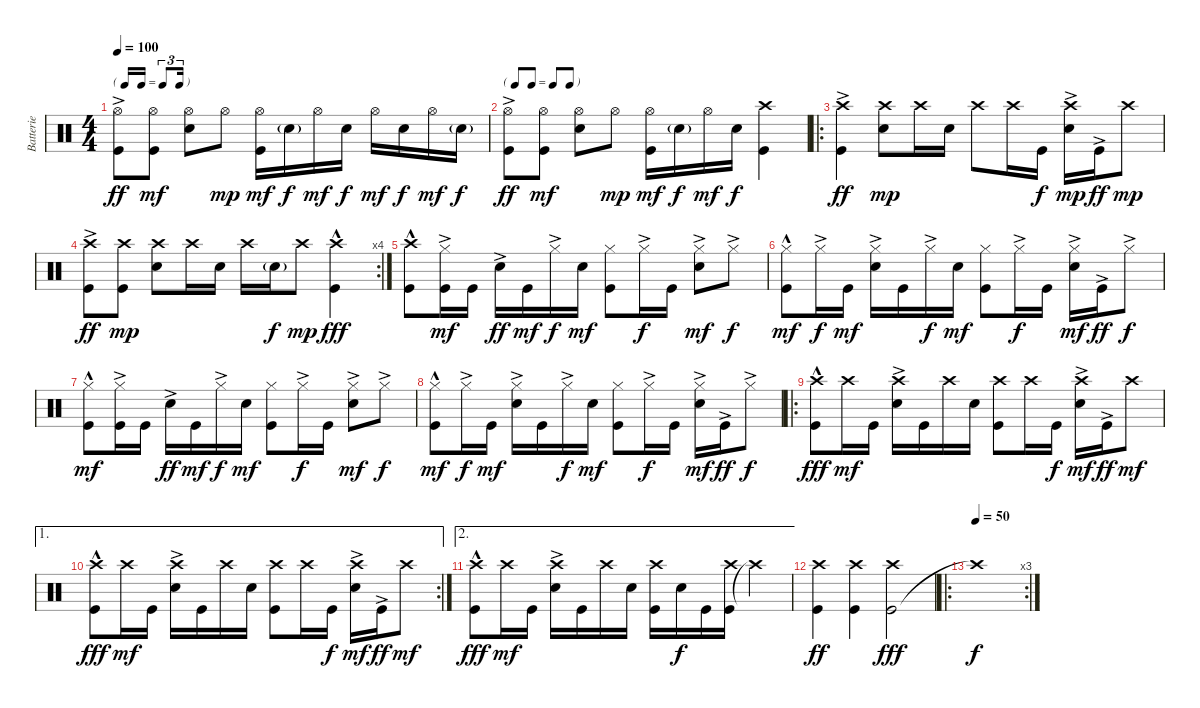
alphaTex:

\track ("Batterie" "Batterie") {instrument percussion}
\staff {score}
\articulation defaults
\ts (4 4)
\tf triplet16th
\tempo 100
\clef neutral
\ks c
("Hi-Hat (open)" "Kick (hit)"{ac}).8{dy ff} ("Kick (hit)" "Hi-Hat (open)").8{dy mf} ("Snare (hit) 2" "Hi-Hat (open)").8 "Hi-Hat (open)".8{dy mp} ("Hi-Hat (open)" "Kick (hit)").16{dy mf} "Snare (hit) 2"{g}.16{dy f} "Hi-Hat (open)".16{dy mf} "Snare (hit) 2".16{dy f} "Hi-Hat (open)".16{dy mf} "Snare (hit) 2".16{dy f} "Hi-Hat (open)".16{dy mf} "Snare (hit) 2"{g}.16{dy f} |
\tf none
("Hi-Hat (open)" "Kick (hit)"{ac}).8{dy ff} ("Kick (hit)" "Hi-Hat (open)").8{dy mf} ("Snare (hit) 2" "Hi-Hat (open)").8 "Hi-Hat (open)".8{dy mp} ("Hi-Hat (open)" "Kick (hit)").16{dy mf} "Snare (hit) 2"{g}.16{dy f} "Hi-Hat (open)".16{dy mf} "Snare (hit) 2".16{dy f} ("Kick (hit)" "Crash high (hit)").4 |
\ro
("Crash high (hit)" "Kick (hit)"{ac}).4{dy ff} ("Snare (hit) 2" "Crash high (hit)").8{dy mp} "Crash high (hit)".16 "Snare (hit) 2".16 "Crash high (hit)".8 "Crash high (hit)".16 "Kick (hit)".16{dy f} ("Snare (hit) 2"{ac} "Crash high (hit)").16{dy mp} "Kick (hit)"{ac}.16{dy ff} "Crash high (hit)".8{dy mp} |
\rc 4
("Crash high (hit)" "Kick (hit)"{ac}).8{dy ff} ("Kick (hit)" "Crash high (hit)").8{dy mp} ("Snare (hit) 2" "Crash high (hit)").8 "Crash high (hit)".16 "Snare (hit) 2".16 "Crash high (hit)".16 "Snare (hit) 2"{g}.16{dy f} "Crash high (hit)".8{dy mp} ("Kick (hit)"{hac} "Crash high (hit)").4{dy fff} |
("Kick (hit)"{hac} "Crash high (hit)"{hac}).8 ("Kick (hit)" "Hi-Hat (closed)"{ac}).16{dy mf} "Kick (hit)".16 "Snare (hit) 2"{ac}.16{dy ff} "Kick (hit)".16{dy mf} "Hi-Hat (closed)"{ac}.16{dy f} "Snare (hit) 2".16{dy mf} ("Hi-Hat (closed)" "Kick (hit)").8 "Hi-Hat (closed)"{ac}.16{dy f} "Kick (hit)".16 ("Snare (hit) 2"{ac} "Hi-Hat (closed)").8{dy mf} "Hi-Hat (closed)"{ac}.8{dy f} |
("Kick (hit)"{hac} "Hi-Hat (closed)").8{dy mf} "Hi-Hat (closed)"{ac}.16{dy f} "Kick (hit)".16{dy mf} ("Snare (hit) 2"{ac} "Hi-Hat (closed)").16 "Kick (hit)".16 "Hi-Hat (closed)"{ac}.16{dy f} "Snare (hit) 2".16{dy mf} ("Hi-Hat (closed)" "Kick (hit)").8 "Hi-Hat (closed)"{ac}.16{dy f} "Kick (hit)".16 ("Snare (hit) 2"{ac} "Hi-Hat (closed)").16{dy mf} "Kick (hit)"{ac}.16{dy ff} "Hi-Hat (closed)"{ac}.8{dy f} |
("Kick (hit)"{hac} "Hi-Hat (closed)").8{dy mf} ("Kick (hit)" "Hi-Hat (closed)"{ac}).16 "Kick (hit)".16 "Snare (hit) 2"{ac}.16{dy ff} "Kick (hit)".16{dy mf} "Hi-Hat (closed)"{ac}.16{dy f} "Snare (hit) 2".16{dy mf} ("Hi-Hat (closed)" "Kick (hit)").8 "Hi-Hat (closed)"{ac}.16{dy f} "Kick (hit)".16 ("Snare (hit) 2"{ac} "Hi-Hat (closed)").8{dy mf} "Hi-Hat (closed)"{ac}.8{dy f} |
("Kick (hit)"{hac} "Hi-Hat (closed)").8{dy mf} "Hi-Hat (closed)"{ac}.16{dy f} "Kick (hit)".16{dy mf} ("Snare (hit) 2"{ac} "Hi-Hat (closed)").16 "Kick (hit)".16 "Hi-Hat (closed)"{ac}.16{dy f} "Snare (hit) 2".16{dy mf} ("Hi-Hat (closed)" "Kick (hit)").8 "Hi-Hat (closed)"{ac}.16{dy f} "Kick (hit)".16 ("Snare (hit) 2"{ac} "Hi-Hat (closed)").16{dy mf} "Kick (hit)"{ac}.16{dy ff} "Hi-Hat (closed)"{ac}.8{dy f} |
\ro
("Kick (hit)"{hac} "Crash high (hit)"{hac}).8{dy fff} "Crash high (hit)".16{dy mf} "Kick (hit)".16 ("Snare (hit) 2"{ac} "Crash high (hit)").16 "Kick (hit)".16 "Crash high (hit)".16 "Snare (hit) 2".16 ("Crash high (hit)" "Kick (hit)").8 "Crash high (hit)".16 "Kick (hit)".16{dy f} ("Snare (hit) 2"{ac} "Crash high (hit)").16{dy mf} "Kick (hit)"{ac}.16{dy ff} "Crash high (hit)".8{dy mf} |
\ae 1
\rc 2
("Kick (hit)"{hac} "Crash high (hit)"{hac}).8{dy fff} "Crash high (hit)".16{dy mf} "Kick (hit)".16 ("Snare (hit) 2"{ac} "Crash high (hit)").16 "Kick (hit)".16 "Crash high (hit)".16 "Snare (hit) 2".16 ("Crash high (hit)" "Kick (hit)").8 "Crash high (hit)".16 "Kick (hit)".16{dy f} ("Snare (hit) 2"{ac} "Crash high (hit)").16{dy mf} "Kick (hit)"{ac}.16{dy ff} "Crash high (hit)".8{dy mf} |
\ae 2
("Kick (hit)"{hac} "Crash high (hit)"{hac}).8{dy fff} "Crash high (hit)".16{dy mf} "Kick (hit)".16 ("Snare (hit) 2"{ac} "Crash high (hit)").16 "Kick (hit)".16 "Crash high (hit)".16 "Snare (hit) 2".16 ("Kick (hit)" "Crash high (hit)").16 "Snare (hit) 2".16{dy f} "Kick (hit)".16 ("Kick (hit)" "Crash high (hit)").16 "Crash high (hit)"{t}.4 |
("Kick (hit)" "Crash high (hit)").4{dy ff} ("Kick (hit)" "Crash high (hit)").4 ("Kick (hit)" "Crash high (hit)").2{dy fff} |
\ro
\rc 3
\tempo (50)
"Crash high (hit)"{t}.1{dy f}
